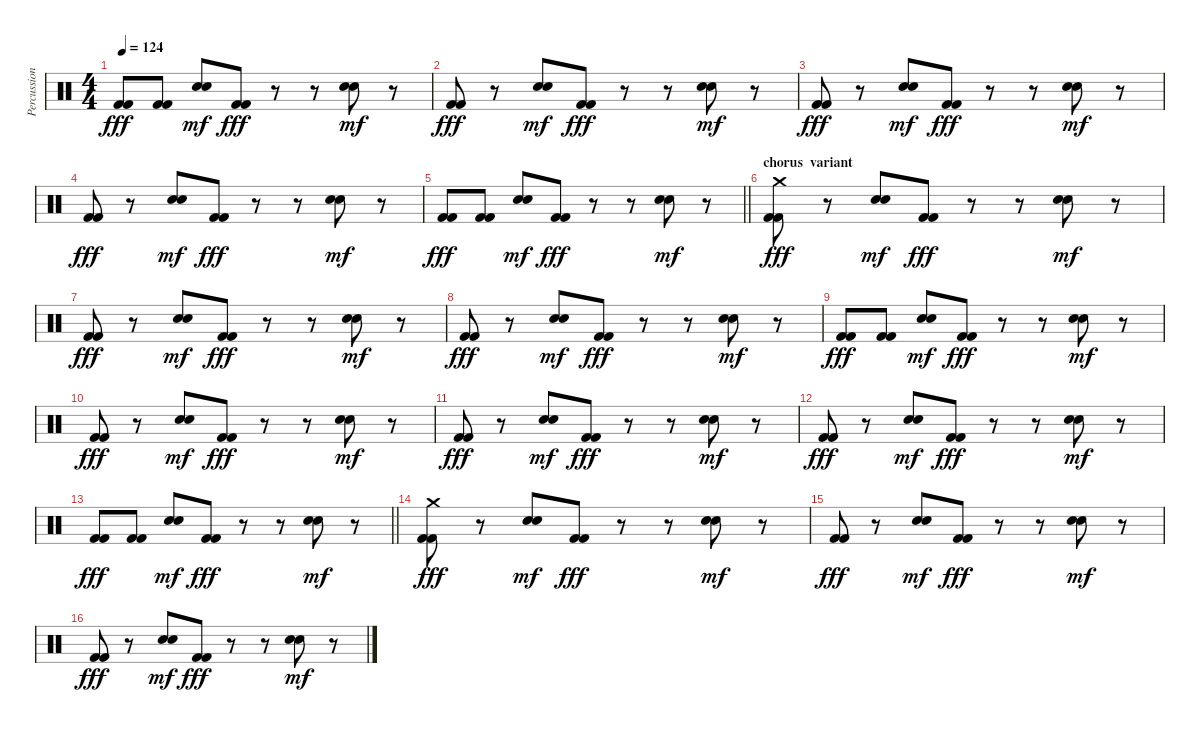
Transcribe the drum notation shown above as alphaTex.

\track ("Percussions" "Percussion") {instrument percussion}
\staff {score}
\articulation defaults
\ts (4 4)
\tempo 124
\clef neutral
\ks c
("Kick (hit) 2" "Kick (hit) 2").8{dy fff} ("Kick (hit) 2" "Kick (hit) 2").8 ("Hand Clap (hit)" "Electric Snare (hit)").8{dy mf} ("Kick (hit) 2" "Kick (hit) 2").8{dy fff} r.8 r.8 ("Hand Clap (hit)" "Electric Snare (hit)").8{dy mf} r.8 |
("Kick (hit) 2" "Kick (hit) 2").8{dy fff} r.8 ("Hand Clap (hit)" "Electric Snare (hit)").8{dy mf} ("Kick (hit) 2" "Kick (hit) 2").8{dy fff} r.8 r.8 ("Hand Clap (hit)" "Electric Snare (hit)").8{dy mf} r.8 |
("Kick (hit) 2" "Kick (hit) 2").8{dy fff} r.8 ("Hand Clap (hit)" "Electric Snare (hit)").8{dy mf} ("Kick (hit) 2" "Kick (hit) 2").8{dy fff} r.8 r.8 ("Hand Clap (hit)" "Electric Snare (hit)").8{dy mf} r.8 |
("Kick (hit) 2" "Kick (hit) 2").8{dy fff} r.8 ("Hand Clap (hit)" "Electric Snare (hit)").8{dy mf} ("Kick (hit) 2" "Kick (hit) 2").8{dy fff} r.8 r.8 ("Hand Clap (hit)" "Electric Snare (hit)").8{dy mf} r.8 |
\barLineRight lightlight
("Kick (hit) 2" "Kick (hit) 2").8{dy fff} ("Kick (hit) 2" "Kick (hit) 2").8 ("Hand Clap (hit)" "Electric Snare (hit)").8{dy mf} ("Kick (hit) 2" "Kick (hit) 2").8{dy fff} r.8 r.8 ("Hand Clap (hit)" "Electric Snare (hit)").8{dy mf} r.8 |
\section ("" "chorus  variant")
("Crash medium (hit)" "Kick (hit) 2" "Kick (hit) 2").8{dy fff} r.8 ("Hand Clap (hit)" "Electric Snare (hit)").8{dy mf} ("Kick (hit) 2" "Kick (hit) 2").8{dy fff} r.8 r.8 ("Hand Clap (hit)" "Electric Snare (hit)").8{dy mf} r.8 |
("Kick (hit) 2" "Kick (hit) 2").8{dy fff} r.8 ("Hand Clap (hit)" "Electric Snare (hit)").8{dy mf} ("Kick (hit) 2" "Kick (hit) 2").8{dy fff} r.8 r.8 ("Hand Clap (hit)" "Electric Snare (hit)").8{dy mf} r.8 |
("Kick (hit) 2" "Kick (hit) 2").8{dy fff} r.8 ("Hand Clap (hit)" "Electric Snare (hit)").8{dy mf} ("Kick (hit) 2" "Kick (hit) 2").8{dy fff} r.8 r.8 ("Hand Clap (hit)" "Electric Snare (hit)").8{dy mf} r.8 |
("Kick (hit) 2" "Kick (hit) 2").8{dy fff} ("Kick (hit) 2" "Kick (hit) 2").8 ("Hand Clap (hit)" "Electric Snare (hit)").8{dy mf} ("Kick (hit) 2" "Kick (hit) 2").8{dy fff} r.8 r.8 ("Hand Clap (hit)" "Electric Snare (hit)").8{dy mf} r.8 |
("Kick (hit) 2" "Kick (hit) 2").8{dy fff} r.8 ("Hand Clap (hit)" "Electric Snare (hit)").8{dy mf} ("Kick (hit) 2" "Kick (hit) 2").8{dy fff} r.8 r.8 ("Hand Clap (hit)" "Electric Snare (hit)").8{dy mf} r.8 |
("Kick (hit) 2" "Kick (hit) 2").8{dy fff} r.8 ("Hand Clap (hit)" "Electric Snare (hit)").8{dy mf} ("Kick (hit) 2" "Kick (hit) 2").8{dy fff} r.8 r.8 ("Hand Clap (hit)" "Electric Snare (hit)").8{dy mf} r.8 |
("Kick (hit) 2" "Kick (hit) 2").8{dy fff} r.8 ("Hand Clap (hit)" "Electric Snare (hit)").8{dy mf} ("Kick (hit) 2" "Kick (hit) 2").8{dy fff} r.8 r.8 ("Hand Clap (hit)" "Electric Snare (hit)").8{dy mf} r.8 |
\barLineRight lightlight
("Kick (hit) 2" "Kick (hit) 2").8{dy fff} ("Kick (hit) 2" "Kick (hit) 2").8 ("Hand Clap (hit)" "Electric Snare (hit)").8{dy mf} ("Kick (hit) 2" "Kick (hit) 2").8{dy fff} r.8 r.8 ("Hand Clap (hit)" "Electric Snare (hit)").8{dy mf} r.8 |
("Crash medium (hit)" "Kick (hit) 2" "Kick (hit) 2").8{dy fff} r.8 ("Hand Clap (hit)" "Electric Snare (hit)").8{dy mf} ("Kick (hit) 2" "Kick (hit) 2").8{dy fff} r.8 r.8 ("Hand Clap (hit)" "Electric Snare (hit)").8{dy mf} r.8 |
("Kick (hit) 2" "Kick (hit) 2").8{dy fff} r.8 ("Hand Clap (hit)" "Electric Snare (hit)").8{dy mf} ("Kick (hit) 2" "Kick (hit) 2").8{dy fff} r.8 r.8 ("Hand Clap (hit)" "Electric Snare (hit)").8{dy mf} r.8 |
("Kick (hit) 2" "Kick (hit) 2").8{dy fff} r.8 ("Hand Clap (hit)" "Electric Snare (hit)").8{dy mf} ("Kick (hit) 2" "Kick (hit) 2").8{dy fff} r.8 r.8 ("Hand Clap (hit)" "Electric Snare (hit)").8{dy mf} r.8
